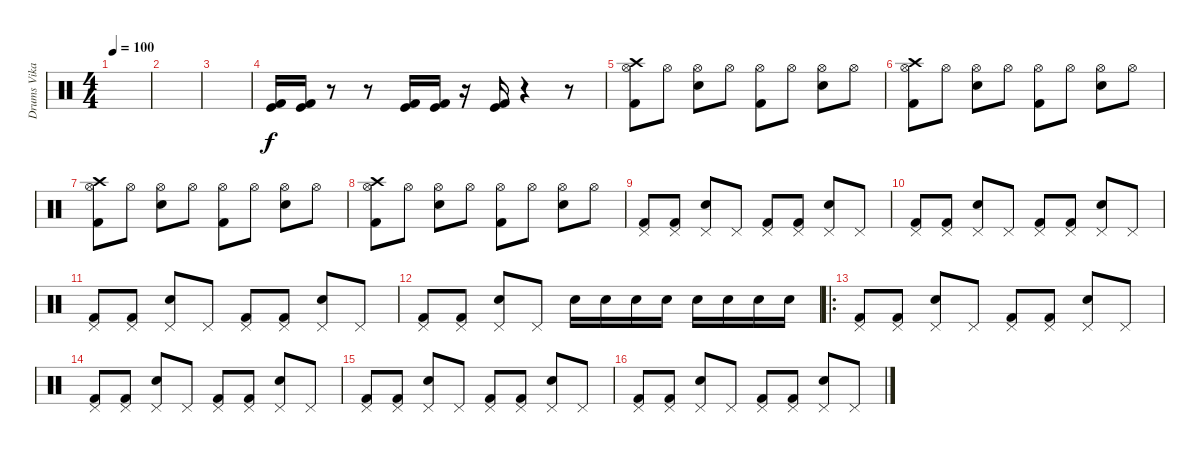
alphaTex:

\track ("Drums Vikadel" "Drums Vika") {instrument percussion}
\staff {score}
\articulation defaults
\ts (4 4)
\tempo 100
\clef neutral
\ks c
|
|
|
("Kick (hit)" "Kick (hit) 2").16 ("Kick (hit)" "Kick (hit) 2").16 r.8 r.8 ("Kick (hit)" "Kick (hit) 2").16 ("Kick (hit)" "Kick (hit) 2").16 r.16 ("Kick (hit)" "Kick (hit) 2").16 r.4 r.8 |
("Hi-Hat (open)" "Crash high (hit)" "Kick (hit) 2").8 "Hi-Hat (open)".8 ("Hi-Hat (open)" "Electric Snare (hit)").8 "Hi-Hat (open)".8 ("Hi-Hat (open)" "Kick (hit) 2").8 "Hi-Hat (open)".8 ("Hi-Hat (open)" "Electric Snare (hit)").8 "Hi-Hat (open)".8 |
("Hi-Hat (open)" "Crash high (hit)" "Kick (hit) 2").8 "Hi-Hat (open)".8 ("Hi-Hat (open)" "Electric Snare (hit)").8 "Hi-Hat (open)".8 ("Hi-Hat (open)" "Kick (hit) 2").8 "Hi-Hat (open)".8 ("Hi-Hat (open)" "Electric Snare (hit)").8 "Hi-Hat (open)".8 |
("Hi-Hat (open)" "Crash high (hit)" "Kick (hit) 2").8 "Hi-Hat (open)".8 ("Hi-Hat (open)" "Electric Snare (hit)").8 "Hi-Hat (open)".8 ("Hi-Hat (open)" "Kick (hit) 2").8 "Hi-Hat (open)".8 ("Hi-Hat (open)" "Electric Snare (hit)").8 "Hi-Hat (open)".8 |
("Hi-Hat (open)" "Crash high (hit)" "Kick (hit) 2").8 "Hi-Hat (open)".8 ("Hi-Hat (open)" "Electric Snare (hit)").8 "Hi-Hat (open)".8 ("Hi-Hat (open)" "Kick (hit) 2").8 "Hi-Hat (open)".8 ("Hi-Hat (open)" "Electric Snare (hit)").8 "Hi-Hat (open)".8 |
("Pedal Hi-Hat (hit)" "Kick (hit) 2").8 ("Pedal Hi-Hat (hit)" "Kick (hit) 2").8 ("Pedal Hi-Hat (hit)" "Electric Snare (hit)").8 "Pedal Hi-Hat (hit)".8 ("Pedal Hi-Hat (hit)" "Kick (hit) 2").8 ("Pedal Hi-Hat (hit)" "Kick (hit) 2").8 ("Pedal Hi-Hat (hit)" "Electric Snare (hit)").8 "Pedal Hi-Hat (hit)".8 |
("Pedal Hi-Hat (hit)" "Kick (hit) 2").8 ("Pedal Hi-Hat (hit)" "Kick (hit) 2").8 ("Pedal Hi-Hat (hit)" "Electric Snare (hit)").8 "Pedal Hi-Hat (hit)".8 ("Pedal Hi-Hat (hit)" "Kick (hit) 2").8 ("Pedal Hi-Hat (hit)" "Kick (hit) 2").8 ("Pedal Hi-Hat (hit)" "Electric Snare (hit)").8 "Pedal Hi-Hat (hit)".8 |
("Pedal Hi-Hat (hit)" "Kick (hit) 2").8 ("Pedal Hi-Hat (hit)" "Kick (hit) 2").8 ("Pedal Hi-Hat (hit)" "Electric Snare (hit)").8 "Pedal Hi-Hat (hit)".8 ("Pedal Hi-Hat (hit)" "Kick (hit) 2").8 ("Pedal Hi-Hat (hit)" "Kick (hit) 2").8 ("Pedal Hi-Hat (hit)" "Electric Snare (hit)").8 "Pedal Hi-Hat (hit)".8 |
("Pedal Hi-Hat (hit)" "Kick (hit) 2").8 ("Pedal Hi-Hat (hit)" "Kick (hit) 2").8 ("Pedal Hi-Hat (hit)" "Electric Snare (hit)").8 "Pedal Hi-Hat (hit)".8 "Electric Snare (hit)".16 "Electric Snare (hit)".16 "Electric Snare (hit)".16 "Electric Snare (hit)".16 "Electric Snare (hit)".16 "Electric Snare (hit)".16 "Electric Snare (hit)".16 "Electric Snare (hit)".16 |
\ro
("Pedal Hi-Hat (hit)" "Kick (hit) 2").8 ("Pedal Hi-Hat (hit)" "Kick (hit) 2").8 ("Pedal Hi-Hat (hit)" "Electric Snare (hit)").8 "Pedal Hi-Hat (hit)".8 ("Pedal Hi-Hat (hit)" "Kick (hit) 2").8 ("Pedal Hi-Hat (hit)" "Kick (hit) 2").8 ("Pedal Hi-Hat (hit)" "Electric Snare (hit)").8 "Pedal Hi-Hat (hit)".8 |
("Pedal Hi-Hat (hit)" "Kick (hit) 2").8 ("Pedal Hi-Hat (hit)" "Kick (hit) 2").8 ("Pedal Hi-Hat (hit)" "Electric Snare (hit)").8 "Pedal Hi-Hat (hit)".8 ("Pedal Hi-Hat (hit)" "Kick (hit) 2").8 ("Pedal Hi-Hat (hit)" "Kick (hit) 2").8 ("Pedal Hi-Hat (hit)" "Electric Snare (hit)").8 "Pedal Hi-Hat (hit)".8 |
("Pedal Hi-Hat (hit)" "Kick (hit) 2").8 ("Pedal Hi-Hat (hit)" "Kick (hit) 2").8 ("Pedal Hi-Hat (hit)" "Electric Snare (hit)").8 "Pedal Hi-Hat (hit)".8 ("Pedal Hi-Hat (hit)" "Kick (hit) 2").8 ("Pedal Hi-Hat (hit)" "Kick (hit) 2").8 ("Pedal Hi-Hat (hit)" "Electric Snare (hit)").8 "Pedal Hi-Hat (hit)".8 |
("Pedal Hi-Hat (hit)" "Kick (hit) 2").8 ("Pedal Hi-Hat (hit)" "Kick (hit) 2").8 ("Pedal Hi-Hat (hit)" "Electric Snare (hit)").8 "Pedal Hi-Hat (hit)".8 ("Pedal Hi-Hat (hit)" "Kick (hit) 2").8 ("Pedal Hi-Hat (hit)" "Kick (hit) 2").8 ("Pedal Hi-Hat (hit)" "Electric Snare (hit)").8 "Pedal Hi-Hat (hit)".8
